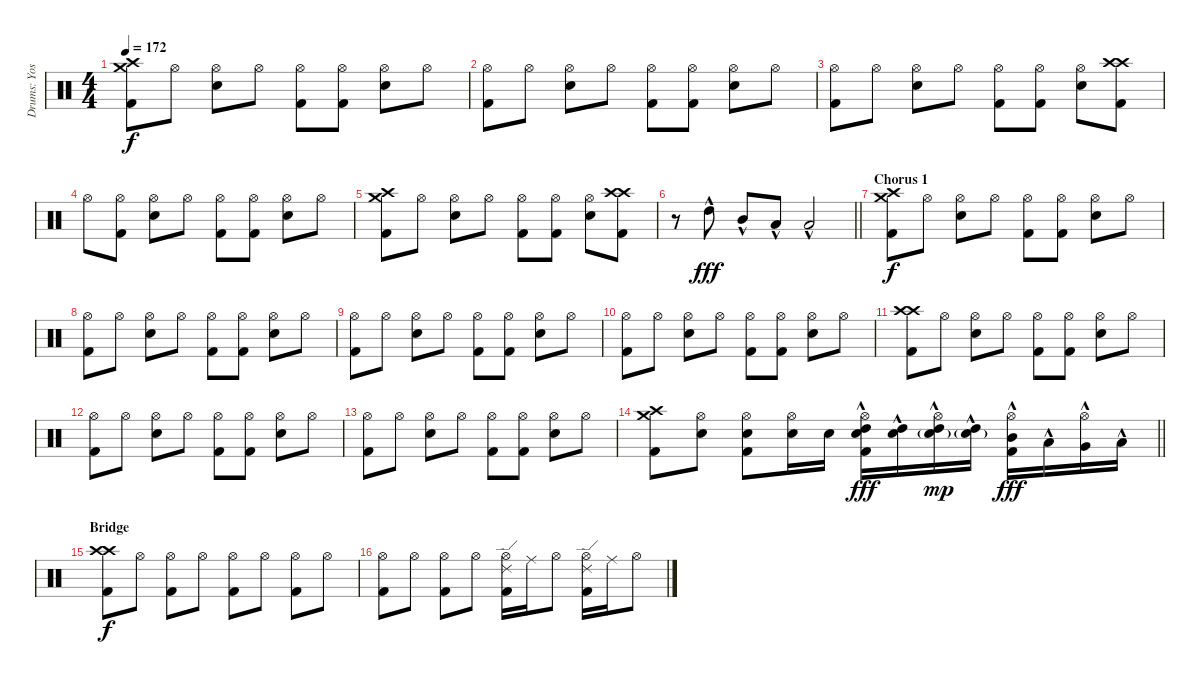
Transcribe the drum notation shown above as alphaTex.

\track ("Drums: Yoshiki" "Drums: Yos") {instrument percussion}
\staff {score}
\articulation defaults
\ts (4 4)
\tempo 172
\clef neutral
\ks c
("Crash high (hit)" "Crash medium (hit)" "Kick (hit) 2").8{dy f} "Hi-Hat (open)".8 ("Hi-Hat (open)" "Snare (hit) 2").8 "Hi-Hat (open)".8 ("Hi-Hat (open)" "Kick (hit) 2").8 ("Hi-Hat (open)" "Kick (hit) 2").8 ("Hi-Hat (open)" "Snare (hit) 2").8 "Hi-Hat (open)".8 |
("Hi-Hat (open)" "Kick (hit) 2").8 "Hi-Hat (open)".8 ("Hi-Hat (open)" "Snare (hit) 2").8 "Hi-Hat (open)".8 ("Hi-Hat (open)" "Kick (hit) 2").8 ("Hi-Hat (open)" "Kick (hit) 2").8 ("Hi-Hat (open)" "Snare (hit) 2").8 "Hi-Hat (open)".8 |
("Hi-Hat (open)" "Kick (hit) 2").8 "Hi-Hat (open)".8 ("Hi-Hat (open)" "Snare (hit) 2").8 "Hi-Hat (open)".8 ("Hi-Hat (open)" "Kick (hit) 2").8 ("Hi-Hat (open)" "Kick (hit) 2").8 ("Hi-Hat (open)" "Snare (hit) 2").8 ("Crash high (hit)" "Crash high (hit)" "Kick (hit) 2").8 |
"Hi-Hat (open)".8 ("Hi-Hat (open)" "Kick (hit) 2").8 ("Hi-Hat (open)" "Snare (hit) 2").8 "Hi-Hat (open)".8 ("Hi-Hat (open)" "Kick (hit) 2").8 ("Hi-Hat (open)" "Kick (hit) 2").8 ("Hi-Hat (open)" "Snare (hit) 2").8 "Hi-Hat (open)".8 |
("Crash high (hit)" "Crash medium (hit)" "Kick (hit) 2").8 "Hi-Hat (open)".8 ("Hi-Hat (open)" "Snare (hit) 2").8 "Hi-Hat (open)".8 ("Hi-Hat (open)" "Kick (hit) 2").8 ("Hi-Hat (open)" "Kick (hit) 2").8 ("Hi-Hat (open)" "Snare (hit) 2").8 ("Crash high (hit)" "Crash high (hit)" "Kick (hit) 2").8 |
\barLineRight lightlight
r.8 "High Tom (hit)"{hac}.8{dy fff} "Mid Tom (hit)"{hac}.8 "Low Tom (hit)"{hac}.8 "Low Tom (hit)"{hac}.2 |
\section ("" "Chorus 1")
("Crash high (hit)" "Crash medium (hit)" "Kick (hit) 2").8{dy f} "Hi-Hat (open)".8 ("Hi-Hat (open)" "Snare (hit) 2").8 "Hi-Hat (open)".8 ("Hi-Hat (open)" "Kick (hit) 2").8 ("Hi-Hat (open)" "Kick (hit) 2").8 ("Hi-Hat (open)" "Snare (hit) 2").8 "Hi-Hat (open)".8 |
("Hi-Hat (open)" "Kick (hit) 2").8 "Hi-Hat (open)".8 ("Hi-Hat (open)" "Snare (hit) 2").8 "Hi-Hat (open)".8 ("Hi-Hat (open)" "Kick (hit) 2").8 ("Hi-Hat (open)" "Kick (hit) 2").8 ("Hi-Hat (open)" "Snare (hit) 2").8 "Hi-Hat (open)".8 |
("Hi-Hat (open)" "Kick (hit) 2").8 "Hi-Hat (open)".8 ("Hi-Hat (open)" "Snare (hit) 2").8 "Hi-Hat (open)".8 ("Hi-Hat (open)" "Kick (hit) 2").8 ("Hi-Hat (open)" "Kick (hit) 2").8 ("Hi-Hat (open)" "Snare (hit) 2").8 "Hi-Hat (open)".8 |
("Hi-Hat (open)" "Kick (hit) 2").8 "Hi-Hat (open)".8 ("Hi-Hat (open)" "Snare (hit) 2").8 "Hi-Hat (open)".8 ("Hi-Hat (open)" "Kick (hit) 2").8 ("Hi-Hat (open)" "Kick (hit) 2").8 ("Hi-Hat (open)" "Snare (hit) 2").8 "Hi-Hat (open)".8 |
("Crash high (hit)" "Crash high (hit)" "Kick (hit) 2").8 "Hi-Hat (open)".8 ("Hi-Hat (open)" "Snare (hit) 2").8 "Hi-Hat (open)".8 ("Hi-Hat (open)" "Kick (hit) 2").8 ("Hi-Hat (open)" "Kick (hit) 2").8 ("Hi-Hat (open)" "Snare (hit) 2").8 "Hi-Hat (open)".8 |
("Hi-Hat (open)" "Kick (hit) 2").8 "Hi-Hat (open)".8 ("Hi-Hat (open)" "Snare (hit) 2").8 "Hi-Hat (open)".8 ("Hi-Hat (open)" "Kick (hit) 2").8 ("Hi-Hat (open)" "Kick (hit) 2").8 ("Hi-Hat (open)" "Snare (hit) 2").8 "Hi-Hat (open)".8 |
("Hi-Hat (open)" "Kick (hit) 2").8 "Hi-Hat (open)".8 ("Hi-Hat (open)" "Snare (hit) 2").8 "Hi-Hat (open)".8 ("Hi-Hat (open)" "Kick (hit) 2").8 ("Hi-Hat (open)" "Kick (hit) 2").8 ("Hi-Hat (open)" "Snare (hit) 2").8 "Hi-Hat (open)".8 |
\barLineRight lightlight
("Crash high (hit)" "Crash medium (hit)" "Kick (hit) 2").8 ("Hi-Hat (open)" "Snare (hit) 2").8 ("Hi-Hat (open)" "Snare (hit) 2" "Kick (hit) 2").8 ("Hi-Hat (open)" "Snare (hit) 2").16 "Snare (hit) 2".16 ("Hi-Hat (open)" "High Tom (hit)"{hac} "Snare (hit) 2" "Kick (hit) 2").16{dy fff} ("High Tom (hit)"{hac} "Snare (hit) 2").16 ("Hi-Hat (open)" "High Tom (hit)"{hac} "Snare (hit) 2"{g}).16{dy mp} ("High Tom (hit)"{hac} "Snare (hit) 2"{g}).16 ("Hi-Hat (open)" "Mid Tom (hit)"{hac} "Kick (hit) 2").16{dy fff} "Low Tom (hit)"{hac}.16 ("Hi-Hat (open)" "Very Low Tom (hit)"{hac}).16 "Low Floor Tom (hit)"{hac}.16 |
\section ("" "Bridge")
("Crash high (hit)" "Crash high (hit)" "Kick (hit) 2").8{dy f} "Hi-Hat (open)".8 ("Hi-Hat (open)" "Kick (hit) 2").8 "Hi-Hat (open)".8 ("Hi-Hat (open)" "Kick (hit) 2").8 "Hi-Hat (open)".8 ("Hi-Hat (open)" "Kick (hit) 2").8 "Hi-Hat (open)".8 |
("Hi-Hat (open)" "Kick (hit) 2").8 "Hi-Hat (open)".8 ("Hi-Hat (open)" "Kick (hit) 2").8 "Hi-Hat (open)".8 ("Hi-Hat (open)" "Ride (edge) 2" "Kick (hit) 2").16 "Ride (middle)".16 "Hi-Hat (open)".8 ("Hi-Hat (open)" "Ride (edge) 2" "Kick (hit) 2").16 "Ride (middle)".16 "Hi-Hat (open)".8
